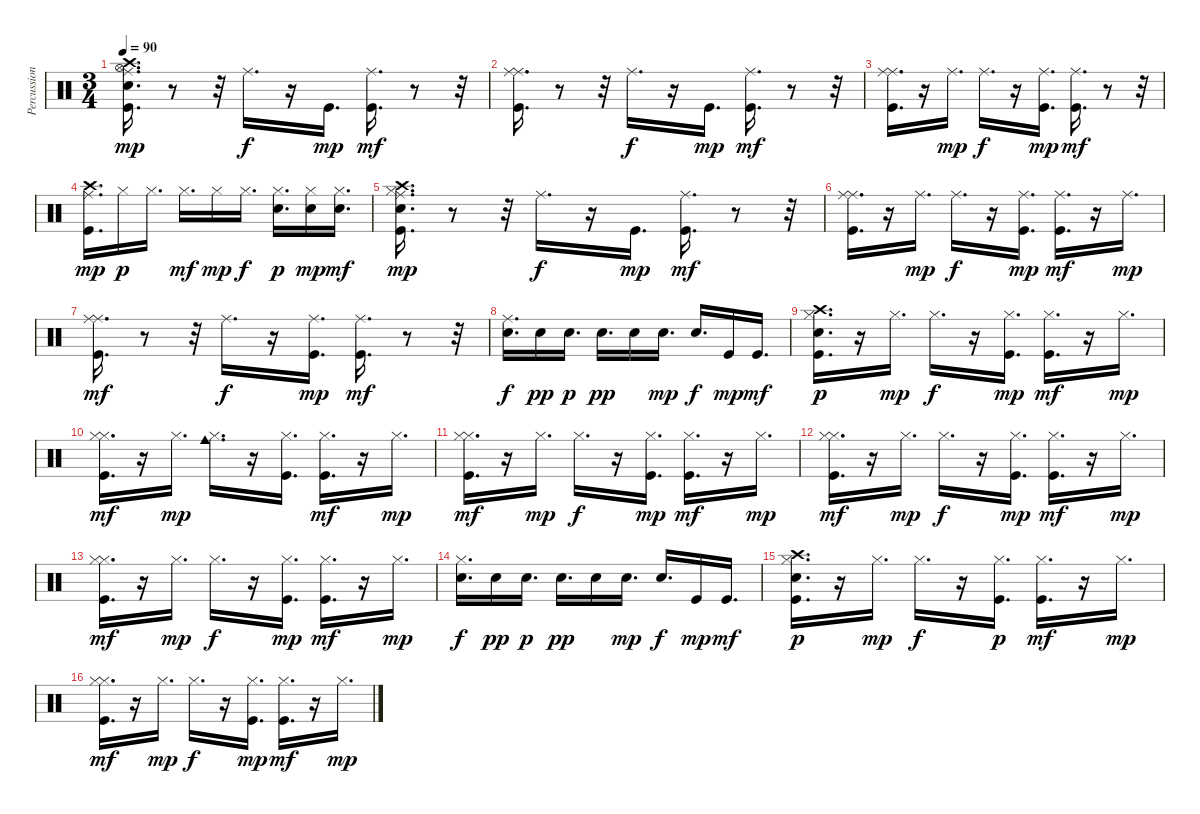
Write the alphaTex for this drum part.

\track ("Percussion" "Percussion") {instrument percussion}
\staff {score}
\articulation defaults
\ts (3 4)
\tempo 90
\clef neutral
\ks c
("Snare (hit) 2" "Hi-Hat (open)" "Kick (hit)" "Ride (middle)" "Crash high (hit)").16{d dy mp} r.8 r.32 "Ride (middle)".16{d dy f} r.16 "Kick (hit)".16{d dy mp} ("Kick (hit)" "Ride (middle)").16{d dy mf} r.8 r.32 |
("Ride (middle)" "Kick (hit)" "Ride (middle)").16{d} r.8 r.32 "Ride (middle)".16{d dy f} r.16 "Kick (hit)".16{d dy mp} ("Kick (hit)" "Ride (middle)").16{d dy mf} r.8 r.32 |
("Ride (middle)" "Kick (hit)" "Ride (middle)").16{d} r.16 "Ride (middle)".16{d dy mp} "Ride (middle)".16{d dy f} r.16 ("Kick (hit)" "Ride (middle)").16{d dy mp} ("Kick (hit)" "Ride (middle)").16{d dy mf} r.8 r.32 |
("Ride (middle)" "Kick (hit)" "Crash high (hit)").16{d dy mp} "Hi-Hat (closed)".16{dy p} "Hi-Hat (closed)".16{d} "Hi-Hat (closed)".16{d dy mf} "Hi-Hat (closed)".16{dy mp} "Hi-Hat (closed)".16{d dy f} ("Snare (hit) 2" "Hi-Hat (closed)").16{d dy p} ("Snare (hit) 2" "Hi-Hat (closed)").16{dy mp} ("Snare (hit) 2" "Hi-Hat (closed)").16{d dy mf} |
("Snare (hit) 2" "Hi-Hat (closed)" "Kick (hit)" "Ride (middle)" "Crash high (hit)").16{d dy mp} r.8 r.32 "Ride (middle)".16{d dy f} r.16 "Kick (hit)".16{d dy mp} ("Kick (hit)" "Ride (middle)").16{d dy mf} r.8 r.32 |
("Ride (middle)" "Kick (hit)" "Ride (middle)").16{d} r.16 "Ride (middle)".16{d dy mp} "Ride (middle)".16{d dy f} r.16 ("Kick (hit)" "Ride (middle)").16{d dy mp} ("Kick (hit)" "Ride (middle)").16{d dy mf} r.16 "Ride (middle)".16{d dy mp} |
("Ride (middle)" "Kick (hit)" "Ride (middle)").16{d dy mf} r.8 r.32 "Ride (middle)".16{d dy f} r.16 ("Kick (hit)" "Ride (middle)").16{d dy mp} ("Kick (hit)" "Ride (middle)").16{d dy mf} r.8 r.32 |
("Ride (middle)" "Snare (hit) 2").16{d dy f} "Snare (hit) 2".16{dy pp} "Snare (hit) 2".16{d dy p} "Snare (hit) 2".16{d dy pp} "Snare (hit) 2".16 "Snare (hit) 2".16{d dy mp} "Snare (hit) 2".16{d dy f} "Kick (hit)".16{dy mp} "Kick (hit)".16{d dy mf} |
("Snare (hit) 2" "Kick (hit)" "Hi-Hat (closed)" "Crash high (hit)").16{d dy p} r.16 "Hi-Hat (closed)".16{d dy mp} "Hi-Hat (closed)".16{d dy f} r.16 ("Kick (hit)" "Hi-Hat (closed)").16{d dy mp} ("Kick (hit)" "Hi-Hat (closed)").16{d dy mf} r.16 "Hi-Hat (closed)".16{d dy mp} |
("Hi-Hat (closed)" "Kick (hit)" "Hi-Hat (closed)").16{d dy mf} r.16 "Hi-Hat (closed)".16{d dy mp} ("Hi-Hat (closed)" "Cowbell medium (hit)").16{d} r.16 ("Kick (hit)" "Hi-Hat (closed)").16{d} ("Kick (hit)" "Hi-Hat (closed)").16{d dy mf} r.16 "Hi-Hat (closed)".16{d dy mp} |
("Hi-Hat (closed)" "Kick (hit)" "Hi-Hat (closed)").16{d dy mf} r.16 "Hi-Hat (closed)".16{d dy mp} "Hi-Hat (closed)".16{d dy f} r.16 ("Kick (hit)" "Hi-Hat (closed)").16{d dy mp} ("Kick (hit)" "Hi-Hat (closed)").16{d dy mf} r.16 "Hi-Hat (closed)".16{d dy mp} |
("Hi-Hat (closed)" "Kick (hit)" "Hi-Hat (closed)").16{d dy mf} r.16 "Hi-Hat (closed)".16{d dy mp} "Hi-Hat (closed)".16{d dy f} r.16 ("Kick (hit)" "Hi-Hat (closed)").16{d dy mp} ("Kick (hit)" "Hi-Hat (closed)").16{d dy mf} r.16 "Hi-Hat (closed)".16{d dy mp} |
("Hi-Hat (closed)" "Kick (hit)" "Hi-Hat (closed)").16{d dy mf} r.16 "Hi-Hat (closed)".16{d dy mp} "Hi-Hat (closed)".16{d dy f} r.16 ("Kick (hit)" "Hi-Hat (closed)").16{d dy mp} ("Kick (hit)" "Hi-Hat (closed)").16{d dy mf} r.16 "Hi-Hat (closed)".16{d dy mp} |
("Hi-Hat (closed)" "Snare (hit) 2").16{d dy f} "Snare (hit) 2".16{dy pp} "Snare (hit) 2".16{d dy p} "Snare (hit) 2".16{d dy pp} "Snare (hit) 2".16 "Snare (hit) 2".16{d dy mp} "Snare (hit) 2".16{d dy f} "Kick (hit)".16{dy mp} "Kick (hit)".16{d dy mf} |
("Snare (hit) 2" "Kick (hit)" "Hi-Hat (closed)" "Crash high (hit)").16{d dy p} r.16 "Hi-Hat (closed)".16{d dy mp} "Hi-Hat (closed)".16{d dy f} r.16 ("Kick (hit)" "Hi-Hat (closed)").16{d dy p} ("Kick (hit)" "Hi-Hat (closed)").16{d dy mf} r.16 "Hi-Hat (closed)".16{d dy mp} |
("Hi-Hat (closed)" "Kick (hit)" "Hi-Hat (closed)").16{d dy mf} r.16 "Hi-Hat (closed)".16{d dy mp} "Hi-Hat (closed)".16{d dy f} r.16 ("Kick (hit)" "Hi-Hat (closed)").16{d dy mp} ("Kick (hit)" "Hi-Hat (closed)").16{d dy mf} r.16 "Hi-Hat (closed)".16{d dy mp}
